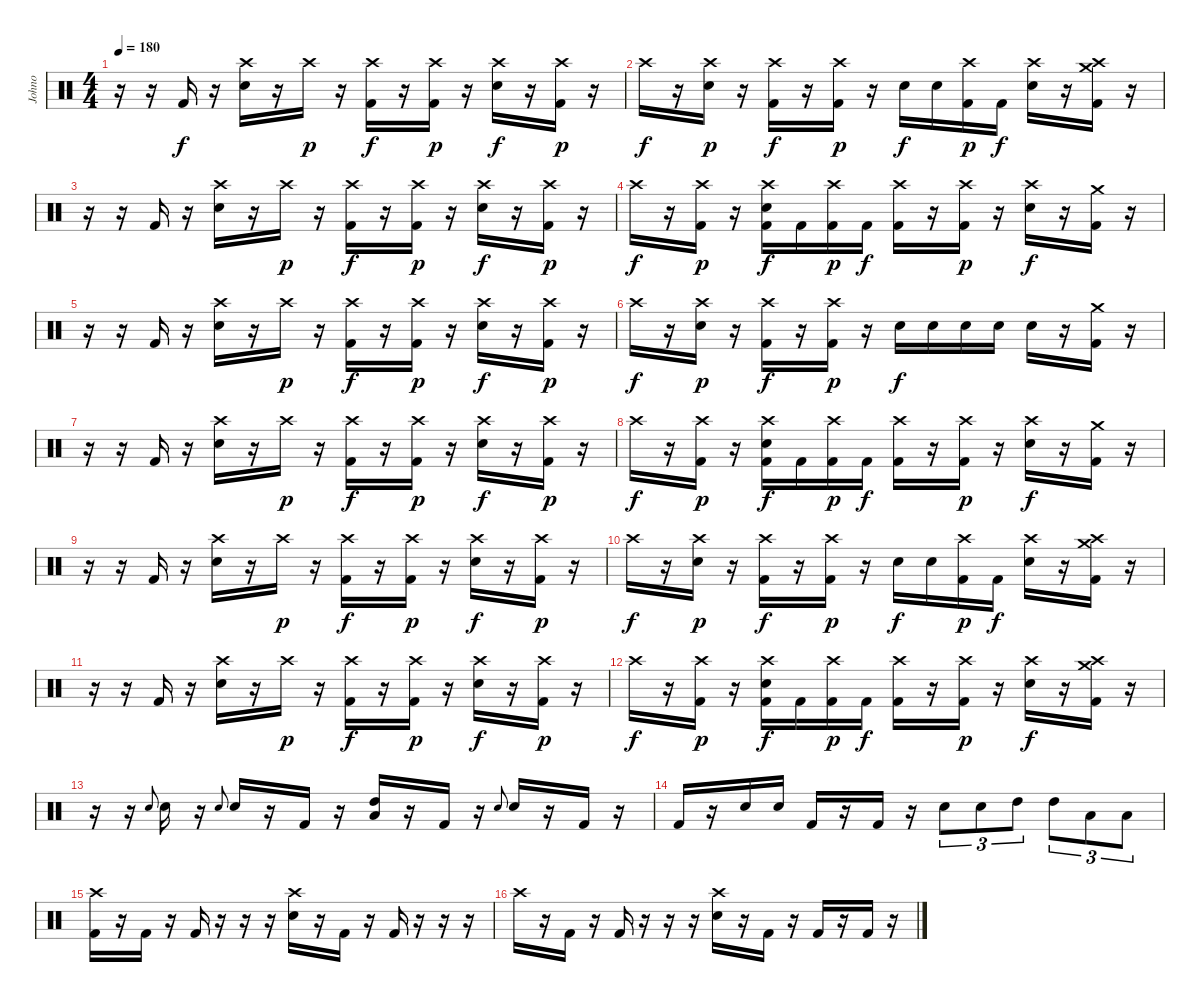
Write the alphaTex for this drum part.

\track (" Johno" " Johno") {instrument percussion}
\staff {score}
\articulation defaults
\ts (4 4)
\tempo 180
\clef neutral
\ks c
r.16{dy f} r.16 "Kick (hit) 2".16 r.16 ("Crash high (hit)" "Electric Snare (hit)").16 r.16 "Crash high (hit)".16{dy p} r.16 ("Crash high (hit)" "Kick (hit) 2").16{dy f} r.16 ("Crash high (hit)" "Kick (hit) 2").16{dy p} r.16 ("Crash high (hit)" "Electric Snare (hit)").16{dy f} r.16 ("Crash high (hit)" "Kick (hit) 2").16{dy p} r.16 |
"Crash high (hit)".16{dy f} r.16 ("Crash high (hit)" "Electric Snare (hit)").16{dy p} r.16 ("Crash high (hit)" "Kick (hit) 2").16{dy f} r.16 ("Crash high (hit)" "Kick (hit) 2").16{dy p} r.16 "Electric Snare (hit)".16{dy f} "Electric Snare (hit)".16 ("Crash high (hit)" "Kick (hit) 2").16{dy p} "Kick (hit) 2".16{dy f} ("Crash high (hit)" "Electric Snare (hit)").16 r.16 ("Crash high (hit)" "Crash medium (hit)" "Kick (hit) 2").16 r.16 |
r.16 r.16 "Kick (hit) 2".16 r.16 ("Crash high (hit)" "Electric Snare (hit)").16 r.16 "Crash high (hit)".16{dy p} r.16 ("Crash high (hit)" "Kick (hit) 2").16{dy f} r.16 ("Crash high (hit)" "Kick (hit) 2").16{dy p} r.16 ("Crash high (hit)" "Electric Snare (hit)").16{dy f} r.16 ("Crash high (hit)" "Kick (hit) 2").16{dy p} r.16 |
"Crash high (hit)".16{dy f} r.16 ("Crash high (hit)" "Kick (hit) 2").16{dy p} r.16 ("Crash high (hit)" "Electric Snare (hit)" "Kick (hit) 2").16{dy f} "Kick (hit) 2".16 ("Crash high (hit)" "Kick (hit) 2").16{dy p} "Kick (hit) 2".16{dy f} ("Crash high (hit)" "Kick (hit) 2").16 r.16 ("Crash high (hit)" "Kick (hit) 2").16{dy p} r.16 ("Crash high (hit)" "Electric Snare (hit)").16{dy f} r.16 ("Crash medium (hit)" "Kick (hit) 2").16 r.16 |
r.16 r.16 "Kick (hit) 2".16 r.16 ("Crash high (hit)" "Electric Snare (hit)").16 r.16 "Crash high (hit)".16{dy p} r.16 ("Crash high (hit)" "Kick (hit) 2").16{dy f} r.16 ("Crash high (hit)" "Kick (hit) 2").16{dy p} r.16 ("Crash high (hit)" "Electric Snare (hit)").16{dy f} r.16 ("Crash high (hit)" "Kick (hit) 2").16{dy p} r.16 |
"Crash high (hit)".16{dy f} r.16 ("Crash high (hit)" "Electric Snare (hit)").16{dy p} r.16 ("Crash high (hit)" "Kick (hit) 2").16{dy f} r.16 ("Crash high (hit)" "Kick (hit) 2").16{dy p} r.16 "Electric Snare (hit)".16{dy f} "Electric Snare (hit)".16 "Electric Snare (hit)".16 "Electric Snare (hit)".16 "Electric Snare (hit)".16 r.16 ("Crash medium (hit)" "Kick (hit) 2").16 r.16 |
r.16 r.16 "Kick (hit) 2".16 r.16 ("Crash high (hit)" "Electric Snare (hit)").16 r.16 "Crash high (hit)".16{dy p} r.16 ("Crash high (hit)" "Kick (hit) 2").16{dy f} r.16 ("Crash high (hit)" "Kick (hit) 2").16{dy p} r.16 ("Crash high (hit)" "Electric Snare (hit)").16{dy f} r.16 ("Crash high (hit)" "Kick (hit) 2").16{dy p} r.16 |
"Crash high (hit)".16{dy f} r.16 ("Crash high (hit)" "Kick (hit) 2").16{dy p} r.16 ("Crash high (hit)" "Electric Snare (hit)" "Kick (hit) 2").16{dy f} "Kick (hit) 2".16 ("Crash high (hit)" "Kick (hit) 2").16{dy p} "Kick (hit) 2".16{dy f} ("Crash high (hit)" "Kick (hit) 2").16 r.16 ("Crash high (hit)" "Kick (hit) 2").16{dy p} r.16 ("Crash high (hit)" "Electric Snare (hit)").16{dy f} r.16 ("Crash medium (hit)" "Kick (hit) 2").16 r.16 |
r.16 r.16 "Kick (hit) 2".16 r.16 ("Crash high (hit)" "Electric Snare (hit)").16 r.16 "Crash high (hit)".16{dy p} r.16 ("Crash high (hit)" "Kick (hit) 2").16{dy f} r.16 ("Crash high (hit)" "Kick (hit) 2").16{dy p} r.16 ("Crash high (hit)" "Electric Snare (hit)").16{dy f} r.16 ("Crash high (hit)" "Kick (hit) 2").16{dy p} r.16 |
"Crash high (hit)".16{dy f} r.16 ("Crash high (hit)" "Electric Snare (hit)").16{dy p} r.16 ("Crash high (hit)" "Kick (hit) 2").16{dy f} r.16 ("Crash high (hit)" "Kick (hit) 2").16{dy p} r.16 "Electric Snare (hit)".16{dy f} "Electric Snare (hit)".16 ("Crash high (hit)" "Kick (hit) 2").16{dy p} "Kick (hit) 2".16{dy f} ("Crash high (hit)" "Electric Snare (hit)").16 r.16 ("Crash high (hit)" "Crash medium (hit)" "Kick (hit) 2").16 r.16 |
r.16 r.16 "Kick (hit) 2".16 r.16 ("Crash high (hit)" "Electric Snare (hit)").16 r.16 "Crash high (hit)".16{dy p} r.16 ("Crash high (hit)" "Kick (hit) 2").16{dy f} r.16 ("Crash high (hit)" "Kick (hit) 2").16{dy p} r.16 ("Crash high (hit)" "Electric Snare (hit)").16{dy f} r.16 ("Crash high (hit)" "Kick (hit) 2").16{dy p} r.16 |
"Crash high (hit)".16{dy f} r.16 ("Crash high (hit)" "Kick (hit) 2").16{dy p} r.16 ("Crash high (hit)" "Electric Snare (hit)" "Kick (hit) 2").16{dy f} "Kick (hit) 2".16 ("Crash high (hit)" "Kick (hit) 2").16{dy p} "Kick (hit) 2".16{dy f} ("Crash high (hit)" "Kick (hit) 2").16 r.16 ("Crash high (hit)" "Kick (hit) 2").16{dy p} r.16 ("Crash high (hit)" "Electric Snare (hit)").16{dy f} r.16 ("Crash high (hit)" "Crash medium (hit)" "Kick (hit) 2").16 r.16 |
r.16 r.16 "Electric Snare (hit)".8{gr onbeat} "Electric Snare (hit)".16 r.16 "Electric Snare (hit)".8{gr onbeat} "Electric Snare (hit)".16 r.16 "Kick (hit) 2".16 r.16 ("High Tom (hit)" "Low Floor Tom (hit)").16 r.16 "Kick (hit) 2".16 r.16 "Electric Snare (hit)".8{gr onbeat} "Electric Snare (hit)".16 r.16 "Kick (hit) 2".16 r.16 |
"Kick (hit) 2".16 r.16 "Electric Snare (hit)".16 "Electric Snare (hit)".16 "Kick (hit) 2".16 r.16 "Kick (hit) 2".16 r.16 "Electric Snare (hit)".8{tu (3 2)} "Electric Snare (hit)".8{tu (3 2)} "High Tom (hit)".8{tu (3 2)} "High Tom (hit)".8{tu (3 2)} "Low Floor Tom (hit)".8{tu (3 2)} "Low Floor Tom (hit)".8{tu (3 2)} |
("Crash high (hit)" "Kick (hit) 2").16 r.16 "Kick (hit) 2".16 r.16 "Kick (hit) 2".16 r.16 r.16 r.16 ("Crash high (hit)" "Electric Snare (hit)").16 r.16 "Kick (hit) 2".16 r.16 "Kick (hit) 2".16 r.16 r.16 r.16 |
"Crash high (hit)".16 r.16 "Kick (hit) 2".16 r.16 "Kick (hit) 2".16 r.16 r.16 r.16 ("Crash high (hit)" "Electric Snare (hit)").16 r.16 "Kick (hit) 2".16 r.16 "Kick (hit) 2".16 r.16 "Kick (hit) 2".16 r.16
